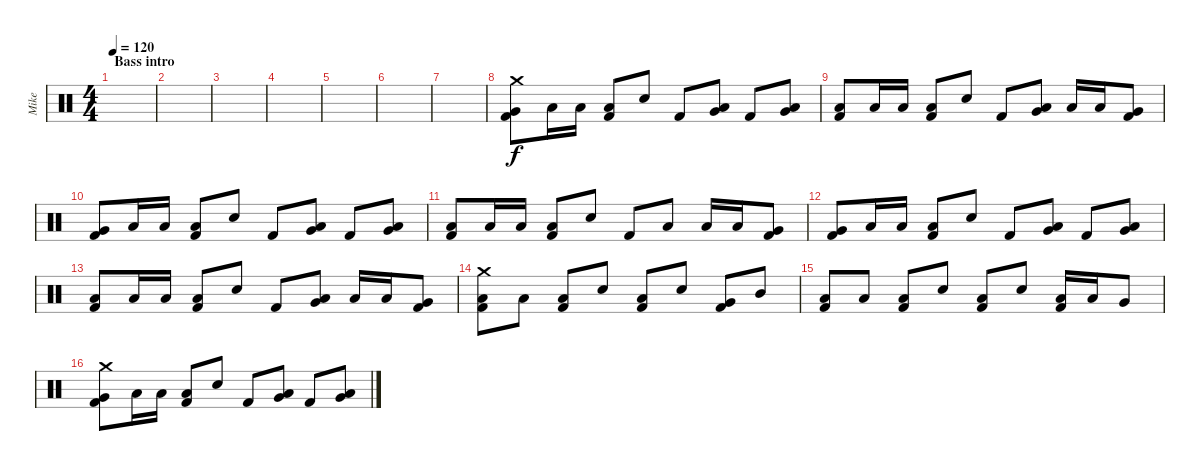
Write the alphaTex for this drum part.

\track ("Mike" "Mike") {instrument percussion}
\staff {score}
\articulation defaults
\ts (4 4)
\section ("" "Bass intro")
\tempo 120
\clef neutral
\ks c
|
|
|
|
|
|
|
("Crash medium (hit)" "Very Low Tom (hit)" "Kick (hit) 2").8 "Low Tom (hit)".16 "Low Tom (hit)".16 ("Low Tom (hit)" "Kick (hit) 2").8 "Snare (hit) 2".8 "Kick (hit) 2".8 ("Low Floor Tom (hit)" "Very Low Tom (hit)").8 "Kick (hit) 2".8 ("Low Floor Tom (hit)" "Very Low Tom (hit)").8 |
("Low Tom (hit)" "Kick (hit) 2").8 "Low Tom (hit)".16 "Low Tom (hit)".16 ("Low Tom (hit)" "Kick (hit) 2").8 "Snare (hit) 2".8 "Kick (hit) 2".8 ("Very Low Tom (hit)" "Low Tom (hit)").8 "Low Floor Tom (hit)".16 "Low Floor Tom (hit)".16 ("Very Low Tom (hit)" "Kick (hit) 2").8 |
("Very Low Tom (hit)" "Kick (hit) 2").8 "Low Tom (hit)".16 "Low Tom (hit)".16 ("Low Tom (hit)" "Kick (hit) 2").8 "Snare (hit) 2".8 "Kick (hit) 2".8 ("Low Floor Tom (hit)" "Very Low Tom (hit)").8 "Kick (hit) 2".8 ("Low Floor Tom (hit)" "Very Low Tom (hit)").8 |
("Low Tom (hit)" "Kick (hit) 2").8 "Low Tom (hit)".16 "Low Tom (hit)".16 ("Low Tom (hit)" "Kick (hit) 2").8 "Snare (hit) 2".8 "Kick (hit) 2".8 "Low Tom (hit)".8 "Low Floor Tom (hit)".16 "Low Floor Tom (hit)".16 ("Very Low Tom (hit)" "Kick (hit) 2").8 |
("Very Low Tom (hit)" "Kick (hit) 2").8 "Low Tom (hit)".16 "Low Tom (hit)".16 ("Low Tom (hit)" "Kick (hit) 2").8 "Snare (hit) 2".8 "Kick (hit) 2".8 ("Low Floor Tom (hit)" "Very Low Tom (hit)").8 "Kick (hit) 2".8 ("Low Floor Tom (hit)" "Very Low Tom (hit)").8 |
("Low Tom (hit)" "Kick (hit) 2").8 "Low Tom (hit)".16 "Low Tom (hit)".16 ("Low Tom (hit)" "Kick (hit) 2").8 "Snare (hit) 2".8 "Kick (hit) 2".8 ("Very Low Tom (hit)" "Low Tom (hit)").8 "Low Floor Tom (hit)".16 "Low Floor Tom (hit)".16 ("Very Low Tom (hit)" "Kick (hit) 2").8 |
("Crash medium (hit)" "Low Floor Tom (hit)" "Kick (hit) 2").8 "Low Floor Tom (hit)".8 ("Low Floor Tom (hit)" "Kick (hit) 2").8 "Snare (hit) 2".8 ("Low Floor Tom (hit)" "Kick (hit) 2").8 "Snare (hit) 2".8 ("Very Low Tom (hit)" "Kick (hit) 2").8 "Mid Tom (hit)".8 |
("Low Floor Tom (hit)" "Kick (hit) 2").8 "Low Floor Tom (hit)".8 ("Low Floor Tom (hit)" "Kick (hit) 2").8 "Snare (hit) 2".8 ("Low Floor Tom (hit)" "Kick (hit) 2").8 "Snare (hit) 2".8 ("Low Tom (hit)" "Kick (hit) 2").16 "Low Tom (hit)".16 "Very Low Tom (hit)".8 |
("Crash medium (hit)" "Very Low Tom (hit)" "Kick (hit) 2").8 "Low Tom (hit)".16 "Low Tom (hit)".16 ("Low Tom (hit)" "Kick (hit) 2").8 "Snare (hit) 2".8 "Kick (hit) 2".8 ("Low Floor Tom (hit)" "Very Low Tom (hit)").8 "Kick (hit) 2".8 ("Low Floor Tom (hit)" "Very Low Tom (hit)").8
